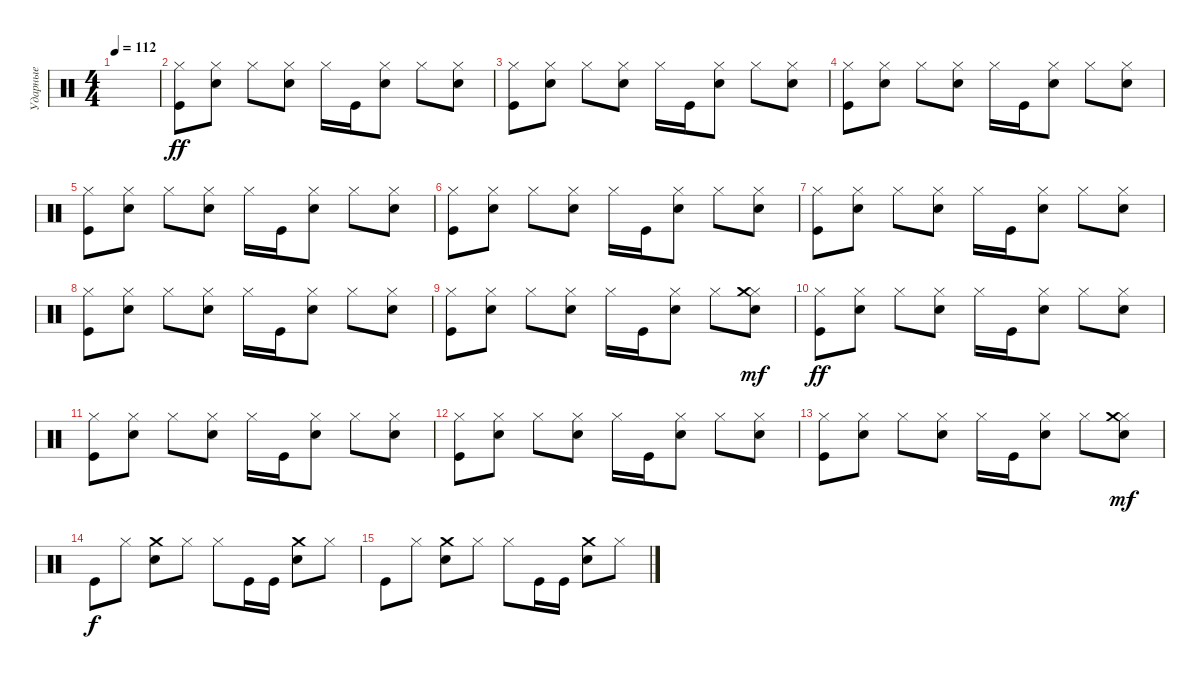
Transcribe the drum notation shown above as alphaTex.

\track ("Ударные" "Ударные") {instrument percussion}
\staff {score}
\articulation defaults
\ts (4 4)
\tempo 112
\clef neutral
\ks c
|
("Hi-Hat (closed)" "Kick (hit)").8{dy ff} ("Hi-Hat (closed)" "Snare (hit) 2").8 "Hi-Hat (closed)".8 ("Hi-Hat (closed)" "Snare (hit) 2").8 "Hi-Hat (closed)".16 "Kick (hit)".16 ("Hi-Hat (closed)" "Snare (hit) 2").8 "Hi-Hat (closed)".8 ("Hi-Hat (closed)" "Snare (hit) 2").8 |
("Hi-Hat (closed)" "Kick (hit)").8 ("Hi-Hat (closed)" "Snare (hit) 2").8 "Hi-Hat (closed)".8 ("Hi-Hat (closed)" "Snare (hit) 2").8 "Hi-Hat (closed)".16 "Kick (hit)".16 ("Hi-Hat (closed)" "Snare (hit) 2").8 "Hi-Hat (closed)".8 ("Hi-Hat (closed)" "Snare (hit) 2").8 |
("Hi-Hat (closed)" "Kick (hit)").8 ("Hi-Hat (closed)" "Snare (hit) 2").8 "Hi-Hat (closed)".8 ("Hi-Hat (closed)" "Snare (hit) 2").8 "Hi-Hat (closed)".16 "Kick (hit)".16 ("Hi-Hat (closed)" "Snare (hit) 2").8 "Hi-Hat (closed)".8 ("Hi-Hat (closed)" "Snare (hit) 2").8 |
("Hi-Hat (closed)" "Kick (hit)").8 ("Hi-Hat (closed)" "Snare (hit) 2").8 "Hi-Hat (closed)".8 ("Hi-Hat (closed)" "Snare (hit) 2").8 "Hi-Hat (closed)".16 "Kick (hit)".16 ("Hi-Hat (closed)" "Snare (hit) 2").8 "Hi-Hat (closed)".8 ("Hi-Hat (closed)" "Snare (hit) 2").8 |
("Hi-Hat (closed)" "Kick (hit)").8 ("Hi-Hat (closed)" "Snare (hit) 2").8 "Hi-Hat (closed)".8 ("Hi-Hat (closed)" "Snare (hit) 2").8 "Hi-Hat (closed)".16 "Kick (hit)".16 ("Hi-Hat (closed)" "Snare (hit) 2").8 "Hi-Hat (closed)".8 ("Hi-Hat (closed)" "Snare (hit) 2").8 |
("Hi-Hat (closed)" "Kick (hit)").8 ("Hi-Hat (closed)" "Snare (hit) 2").8 "Hi-Hat (closed)".8 ("Hi-Hat (closed)" "Snare (hit) 2").8 "Hi-Hat (closed)".16 "Kick (hit)".16 ("Hi-Hat (closed)" "Snare (hit) 2").8 "Hi-Hat (closed)".8 ("Hi-Hat (closed)" "Snare (hit) 2").8 |
("Hi-Hat (closed)" "Kick (hit)").8 ("Hi-Hat (closed)" "Snare (hit) 2").8 "Hi-Hat (closed)".8 ("Hi-Hat (closed)" "Snare (hit) 2").8 "Hi-Hat (closed)".16 "Kick (hit)".16 ("Hi-Hat (closed)" "Snare (hit) 2").8 "Hi-Hat (closed)".8 ("Hi-Hat (closed)" "Snare (hit) 2").8 |
("Hi-Hat (closed)" "Kick (hit)").8 ("Hi-Hat (closed)" "Snare (hit) 2").8 "Hi-Hat (closed)".8 ("Hi-Hat (closed)" "Snare (hit) 2").8 "Hi-Hat (closed)".16 "Kick (hit)".16 ("Hi-Hat (closed)" "Snare (hit) 2").8 "Hi-Hat (closed)".8 ("Hi-Hat (closed)" "Snare (hit) 2" "Crash medium (hit)").8{dy mf} |
("Hi-Hat (closed)" "Kick (hit)").8{dy ff} ("Hi-Hat (closed)" "Snare (hit) 2").8 "Hi-Hat (closed)".8 ("Hi-Hat (closed)" "Snare (hit) 2").8 "Hi-Hat (closed)".16 "Kick (hit)".16 ("Hi-Hat (closed)" "Snare (hit) 2").8 "Hi-Hat (closed)".8 ("Hi-Hat (closed)" "Snare (hit) 2").8 |
("Hi-Hat (closed)" "Kick (hit)").8 ("Hi-Hat (closed)" "Snare (hit) 2").8 "Hi-Hat (closed)".8 ("Hi-Hat (closed)" "Snare (hit) 2").8 "Hi-Hat (closed)".16 "Kick (hit)".16 ("Hi-Hat (closed)" "Snare (hit) 2").8 "Hi-Hat (closed)".8 ("Hi-Hat (closed)" "Snare (hit) 2").8 |
("Hi-Hat (closed)" "Kick (hit)").8 ("Hi-Hat (closed)" "Snare (hit) 2").8 "Hi-Hat (closed)".8 ("Hi-Hat (closed)" "Snare (hit) 2").8 "Hi-Hat (closed)".16 "Kick (hit)".16 ("Hi-Hat (closed)" "Snare (hit) 2").8 "Hi-Hat (closed)".8 ("Hi-Hat (closed)" "Snare (hit) 2").8 |
("Hi-Hat (closed)" "Kick (hit)").8 ("Hi-Hat (closed)" "Snare (hit) 2").8 "Hi-Hat (closed)".8 ("Hi-Hat (closed)" "Snare (hit) 2").8 "Hi-Hat (closed)".16 "Kick (hit)".16 ("Hi-Hat (closed)" "Snare (hit) 2").8 "Hi-Hat (closed)".8 ("Hi-Hat (closed)" "Snare (hit) 2" "Crash medium (hit)").8{dy mf} |
"Kick (hit)".8{dy f} "Hi-Hat (closed)".8 ("Crash medium (hit)" "Snare (hit) 2").8 "Hi-Hat (closed)".8 "Hi-Hat (closed)".8 "Kick (hit)".16 "Kick (hit)".16 ("Crash medium (hit)" "Snare (hit) 2").8 "Hi-Hat (closed)".8 |
"Kick (hit)".8 "Hi-Hat (closed)".8 ("Crash medium (hit)" "Snare (hit) 2").8 "Hi-Hat (closed)".8 "Hi-Hat (closed)".8 "Kick (hit)".16 "Kick (hit)".16 ("Crash medium (hit)" "Snare (hit) 2").8 "Hi-Hat (closed)".8
